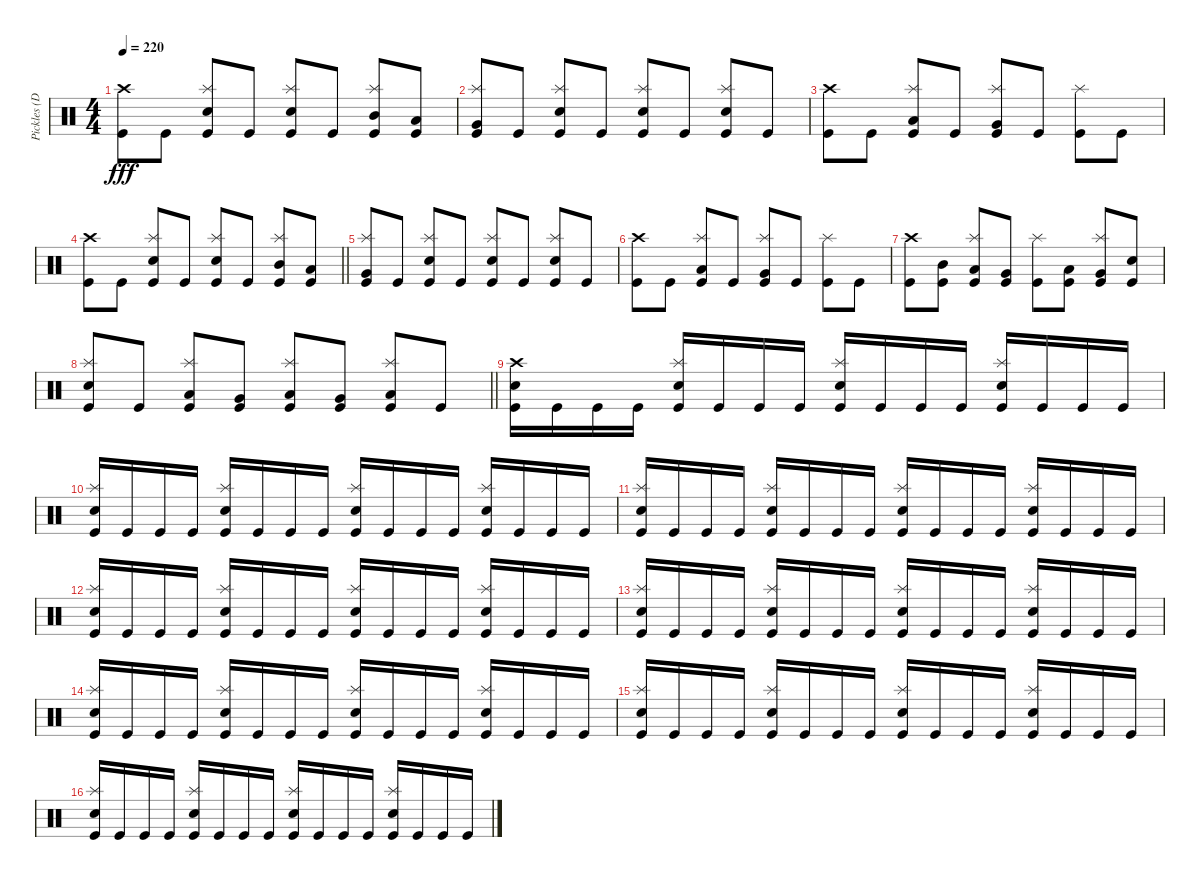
\track ("Pickles (Drums)" "Pickles (D") {instrument percussion}
\staff {score}
\articulation defaults
\ts (4 4)
\tempo 220
\clef neutral
\ks c
("Crash high (hit)" "Kick (hit)").8{dy fff} "Kick (hit)".8 ("Splash (hit)" "Electric Snare (hit)" "Kick (hit)").8 "Kick (hit)".8 ("Splash (hit)" "Electric Snare (hit)" "Kick (hit)").8 "Kick (hit)".8 ("Splash (hit)" "Mid Tom (hit)" "Kick (hit)").8 ("Low Tom (hit)" "Kick (hit)").8 |
("Splash (hit)" "Very Low Tom (hit)" "Kick (hit)").8 "Kick (hit)".8 ("Splash (hit)" "Electric Snare (hit)" "Kick (hit)").8 "Kick (hit)".8 ("Splash (hit)" "Electric Snare (hit)" "Kick (hit)").8 "Kick (hit)".8 ("Splash (hit)" "Electric Snare (hit)" "Kick (hit)").8 "Kick (hit)".8 |
("Crash high (hit)" "Kick (hit)").8 "Kick (hit)".8 ("Splash (hit)" "Low Tom (hit)" "Kick (hit)").8 "Kick (hit)".8 ("Splash (hit)" "Very Low Tom (hit)" "Kick (hit)").8 "Kick (hit)".8 ("Splash (hit)" "Kick (hit)").8 "Kick (hit)".8 |
\barLineRight lightlight
("Crash high (hit)" "Kick (hit)").8 "Kick (hit)".8 ("Splash (hit)" "Electric Snare (hit)" "Kick (hit)").8 "Kick (hit)".8 ("Splash (hit)" "Electric Snare (hit)" "Kick (hit)").8 "Kick (hit)".8 ("Splash (hit)" "Mid Tom (hit)" "Kick (hit)").8 ("Low Tom (hit)" "Kick (hit)").8 |
("Splash (hit)" "Very Low Tom (hit)" "Kick (hit)").8 "Kick (hit)".8 ("Splash (hit)" "Electric Snare (hit)" "Kick (hit)").8 "Kick (hit)".8 ("Splash (hit)" "Electric Snare (hit)" "Kick (hit)").8 "Kick (hit)".8 ("Splash (hit)" "Electric Snare (hit)" "Kick (hit)").8 "Kick (hit)".8 |
("Crash high (hit)" "Kick (hit)").8 "Kick (hit)".8 ("Splash (hit)" "Low Tom (hit)" "Kick (hit)").8 "Kick (hit)".8 ("Splash (hit)" "Very Low Tom (hit)" "Kick (hit)").8 "Kick (hit)".8 ("Splash (hit)" "Kick (hit)").8 "Kick (hit)".8 |
("Crash high (hit)" "Kick (hit)").8 ("Mid Tom (hit)" "Kick (hit)").8 ("Splash (hit)" "Low Tom (hit)" "Kick (hit)").8 ("Very Low Tom (hit)" "Kick (hit)").8 ("Splash (hit)" "Kick (hit)").8 ("Low Tom (hit)" "Kick (hit)").8 ("Splash (hit)" "Very Low Tom (hit)" "Kick (hit)").8 ("Electric Snare (hit)" "Kick (hit)").8 |
\barLineRight lightlight
("Splash (hit)" "Electric Snare (hit)" "Kick (hit)").8 "Kick (hit)".8 ("Splash (hit)" "Low Tom (hit)" "Kick (hit)").8 ("Very Low Tom (hit)" "Kick (hit)").8 ("Splash (hit)" "Low Floor Tom (hit)" "Kick (hit)").8 ("Very Low Tom (hit)" "Kick (hit)").8 ("Splash (hit)" "Low Floor Tom (hit)" "Kick (hit)").8 "Kick (hit)".8 |
("Crash high (hit)" "Electric Snare (hit)" "Kick (hit)").16 "Kick (hit)".16 "Kick (hit)".16 "Kick (hit)".16 ("Splash (hit)" "Electric Snare (hit)" "Kick (hit)").16 "Kick (hit)".16 "Kick (hit)".16 "Kick (hit)".16 ("Splash (hit)" "Electric Snare (hit)" "Kick (hit)").16 "Kick (hit)".16 "Kick (hit)".16 "Kick (hit)".16 ("Splash (hit)" "Electric Snare (hit)" "Kick (hit)").16 "Kick (hit)".16 "Kick (hit)".16 "Kick (hit)".16 |
("Splash (hit)" "Electric Snare (hit)" "Kick (hit)").16 "Kick (hit)".16 "Kick (hit)".16 "Kick (hit)".16 ("Splash (hit)" "Electric Snare (hit)" "Kick (hit)").16 "Kick (hit)".16 "Kick (hit)".16 "Kick (hit)".16 ("Splash (hit)" "Electric Snare (hit)" "Kick (hit)").16 "Kick (hit)".16 "Kick (hit)".16 "Kick (hit)".16 ("Splash (hit)" "Electric Snare (hit)" "Kick (hit)").16 "Kick (hit)".16 "Kick (hit)".16 "Kick (hit)".16 |
("Splash (hit)" "Electric Snare (hit)" "Kick (hit)").16 "Kick (hit)".16 "Kick (hit)".16 "Kick (hit)".16 ("Splash (hit)" "Electric Snare (hit)" "Kick (hit)").16 "Kick (hit)".16 "Kick (hit)".16 "Kick (hit)".16 ("Splash (hit)" "Electric Snare (hit)" "Kick (hit)").16 "Kick (hit)".16 "Kick (hit)".16 "Kick (hit)".16 ("Splash (hit)" "Electric Snare (hit)" "Kick (hit)").16 "Kick (hit)".16 "Kick (hit)".16 "Kick (hit)".16 |
("Splash (hit)" "Electric Snare (hit)" "Kick (hit)").16 "Kick (hit)".16 "Kick (hit)".16 "Kick (hit)".16 ("Splash (hit)" "Electric Snare (hit)" "Kick (hit)").16 "Kick (hit)".16 "Kick (hit)".16 "Kick (hit)".16 ("Splash (hit)" "Electric Snare (hit)" "Kick (hit)").16 "Kick (hit)".16 "Kick (hit)".16 "Kick (hit)".16 ("Splash (hit)" "Electric Snare (hit)" "Kick (hit)").16 "Kick (hit)".16 "Kick (hit)".16 "Kick (hit)".16 |
("Splash (hit)" "Electric Snare (hit)" "Kick (hit)").16 "Kick (hit)".16 "Kick (hit)".16 "Kick (hit)".16 ("Splash (hit)" "Electric Snare (hit)" "Kick (hit)").16 "Kick (hit)".16 "Kick (hit)".16 "Kick (hit)".16 ("Splash (hit)" "Electric Snare (hit)" "Kick (hit)").16 "Kick (hit)".16 "Kick (hit)".16 "Kick (hit)".16 ("Splash (hit)" "Electric Snare (hit)" "Kick (hit)").16 "Kick (hit)".16 "Kick (hit)".16 "Kick (hit)".16 |
("Splash (hit)" "Electric Snare (hit)" "Kick (hit)").16 "Kick (hit)".16 "Kick (hit)".16 "Kick (hit)".16 ("Splash (hit)" "Electric Snare (hit)" "Kick (hit)").16 "Kick (hit)".16 "Kick (hit)".16 "Kick (hit)".16 ("Splash (hit)" "Electric Snare (hit)" "Kick (hit)").16 "Kick (hit)".16 "Kick (hit)".16 "Kick (hit)".16 ("Splash (hit)" "Electric Snare (hit)" "Kick (hit)").16 "Kick (hit)".16 "Kick (hit)".16 "Kick (hit)".16 |
("Splash (hit)" "Electric Snare (hit)" "Kick (hit)").16 "Kick (hit)".16 "Kick (hit)".16 "Kick (hit)".16 ("Splash (hit)" "Electric Snare (hit)" "Kick (hit)").16 "Kick (hit)".16 "Kick (hit)".16 "Kick (hit)".16 ("Splash (hit)" "Electric Snare (hit)" "Kick (hit)").16 "Kick (hit)".16 "Kick (hit)".16 "Kick (hit)".16 ("Splash (hit)" "Electric Snare (hit)" "Kick (hit)").16 "Kick (hit)".16 "Kick (hit)".16 "Kick (hit)".16 |
("Splash (hit)" "Electric Snare (hit)" "Kick (hit)").16 "Kick (hit)".16 "Kick (hit)".16 "Kick (hit)".16 ("Splash (hit)" "Electric Snare (hit)" "Kick (hit)").16 "Kick (hit)".16 "Kick (hit)".16 "Kick (hit)".16 ("Splash (hit)" "Electric Snare (hit)" "Kick (hit)").16 "Kick (hit)".16 "Kick (hit)".16 "Kick (hit)".16 ("Splash (hit)" "Electric Snare (hit)" "Kick (hit)").16 "Kick (hit)".16 "Kick (hit)".16 "Kick (hit)".16
